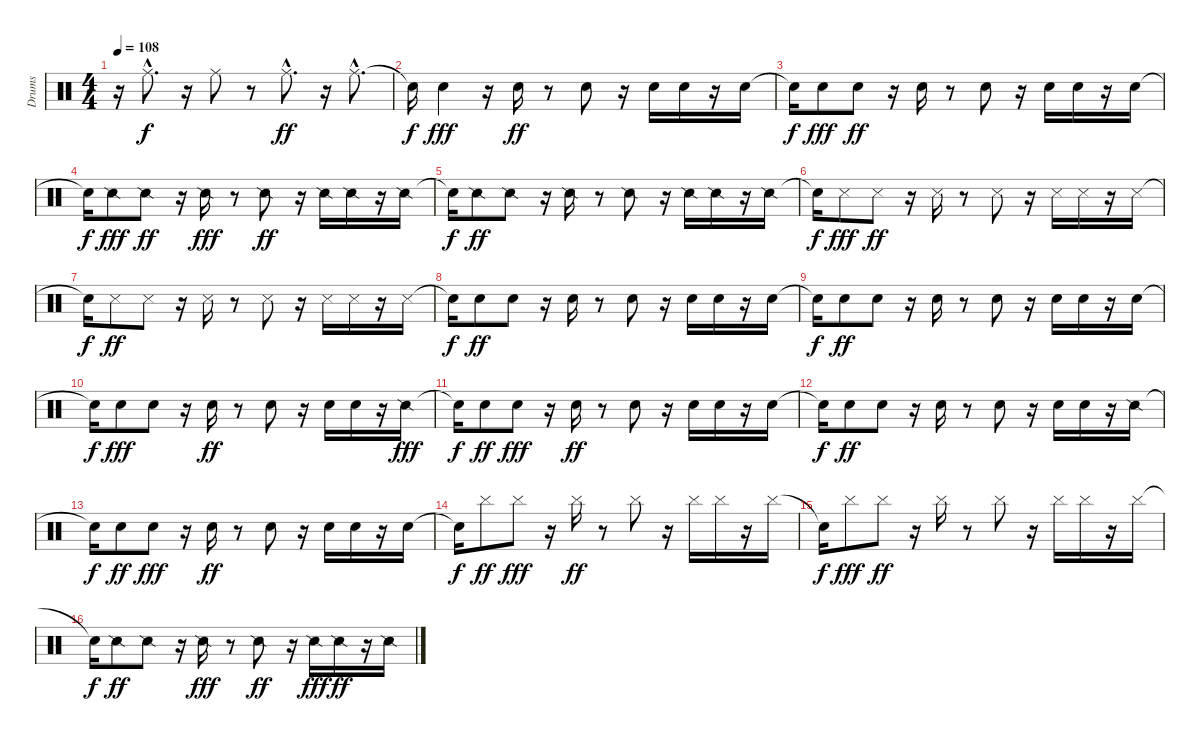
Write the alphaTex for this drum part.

\track ("Drums" "Drums") {instrument percussion}
\staff {score}
\articulation defaults
\ts (4 4)
\tempo 108
\clef neutral
\ks c
r.16{dy mp} "Ride (middle)"{hac}.8{d dy f} r.16 "Ride (middle)".8 r.8 "Ride (middle)"{hac}.8{d dy ff} r.16 "Ride (middle)"{hac}.8{d} |
"Snare (hit)"{t}.16{dy f} "Metronome (bell)".4{dy fff} r.16 "Metronome (bell)".16{dy ff} r.8 "Metronome (bell)".8 r.16 "Metronome (bell)".16 "Metronome (bell)".16 r.16 "Metronome (bell)".16 |
"Snare (hit)"{t}.16{dy f} "Metronome (bell)".8{dy fff} "Metronome (bell)".8{dy ff} r.16 "Metronome (bell)".16 r.8 "Metronome (bell)".8 r.16 "Metronome (bell)".16 "Metronome (bell)".16 r.16 "Metronome (bell)".16 |
"Snare (hit)"{t}.16{dy f} "Snare (side stick) 2".8{dy fff} "Snare (side stick) 2".8{dy ff} r.16 "Snare (side stick) 2".16{dy fff} r.8 "Snare (side stick) 2".8{dy ff} r.16 "Snare (side stick) 2".16 "Snare (side stick) 2".16 r.16 "Snare (side stick) 2".16 |
"Snare (hit)"{t}.16{dy f} "Snare (side stick) 2".8{dy ff} "Snare (side stick) 2".8 r.16 "Snare (side stick) 2".16 r.8 "Snare (side stick) 2".8 r.16 "Snare (side stick) 2".16 "Snare (side stick) 2".16 r.16 "Snare (side stick) 2".16 |
"Snare (hit)"{t}.16{dy f} "Snare (side stick) 3".8{dy fff} "Snare (side stick) 3".8{dy ff} r.16 "Snare (side stick) 3".16 r.8 "Snare (side stick) 3".8 r.16 "Snare (side stick) 3".16 "Snare (side stick) 3".16 r.16 "Snare (side stick) 3".16 |
"Snare (hit)"{t}.16{dy f} "Snare (side stick) 3".8{dy ff} "Snare (side stick) 3".8 r.16 "Snare (side stick) 3".16 r.8 "Snare (side stick) 3".8 r.16 "Snare (side stick) 3".16 "Snare (side stick) 3".16 r.16 "Snare (side stick) 3".16 |
"Snare (hit)"{t}.16{dy f} "Hand Clap (hit)".8{dy ff} "Hand Clap (hit)".8 r.16 "Hand Clap (hit)".16 r.8 "Hand Clap (hit)".8 r.16 "Hand Clap (hit)".16 "Hand Clap (hit)".16 r.16 "Hand Clap (hit)".16 |
"Snare (hit)"{t}.16{dy f} "Hand Clap (hit)".8{dy ff} "Hand Clap (hit)".8 r.16 "Hand Clap (hit)".16 r.8 "Hand Clap (hit)".8 r.16 "Hand Clap (hit)".16 "Hand Clap (hit)".16 r.16 "Hand Clap (hit)".16 |
"Snare (hit)"{t}.16{dy f} "Metronome (bell)".8{dy fff} "Metronome (bell)".8 r.16 "Metronome (bell)".16{dy ff} r.8 "Metronome (bell)".8 r.16 "Metronome (bell)".16 "Metronome (bell)".16 r.16 "Snare (side stick) 2".16{dy fff} |
"Snare (hit)"{t}.16{dy f} "Metronome (bell)".8{dy ff} "Metronome (bell)".8{dy fff} r.16 "Metronome (bell)".16{dy ff} r.8 "Metronome (bell)".8 r.16 "Metronome (bell)".16 "Metronome (bell)".16 r.16 "Metronome (bell)".16 |
"Snare (hit)"{t}.16{dy f} "Metronome (bell)".8{dy ff} "Metronome (bell)".8 r.16 "Metronome (bell)".16 r.8 "Metronome (bell)".8 r.16 "Metronome (bell)".16 "Metronome (bell)".16 r.16 "Snare (side stick) 2".16 |
"Snare (hit)"{t}.16{dy f} "Metronome (bell)".8{dy ff} "Metronome (bell)".8{dy fff} r.16 "Metronome (bell)".16{dy ff} r.8 "Metronome (bell)".8 r.16 "Metronome (bell)".16 "Metronome (bell)".16 r.16 "Metronome (bell)".16 |
"Snare (hit)"{t}.16{dy f} "Cymbal (hit)".8{dy ff} "Cymbal (hit)".8{dy fff} r.16 "Cymbal (hit)".16{dy ff} r.8 "Cymbal (hit)".8 r.16 "Cymbal (hit)".16 "Cymbal (hit)".16 r.16 "Cymbal (hit)".16 |
"Snare (hit)"{t}.16{dy f} "Cymbal (hit)".8{dy fff} "Cymbal (hit)".8{dy ff} r.16 "Cymbal (hit)".16 r.8 "Cymbal (hit)".8 r.16 "Cymbal (hit)".16 "Cymbal (hit)".16 r.16 "Cymbal (hit)".16 |
"Snare (hit)"{t}.16{dy f} "Snare (side stick) 2".8{dy ff} "Snare (side stick) 2".8 r.16 "Snare (side stick) 2".16{dy fff} r.8 "Snare (side stick) 2".8{dy ff} r.16 "Snare (side stick) 2".16{dy fff} "Snare (side stick) 2".16{dy ff} r.16 "Snare (side stick) 2".16
